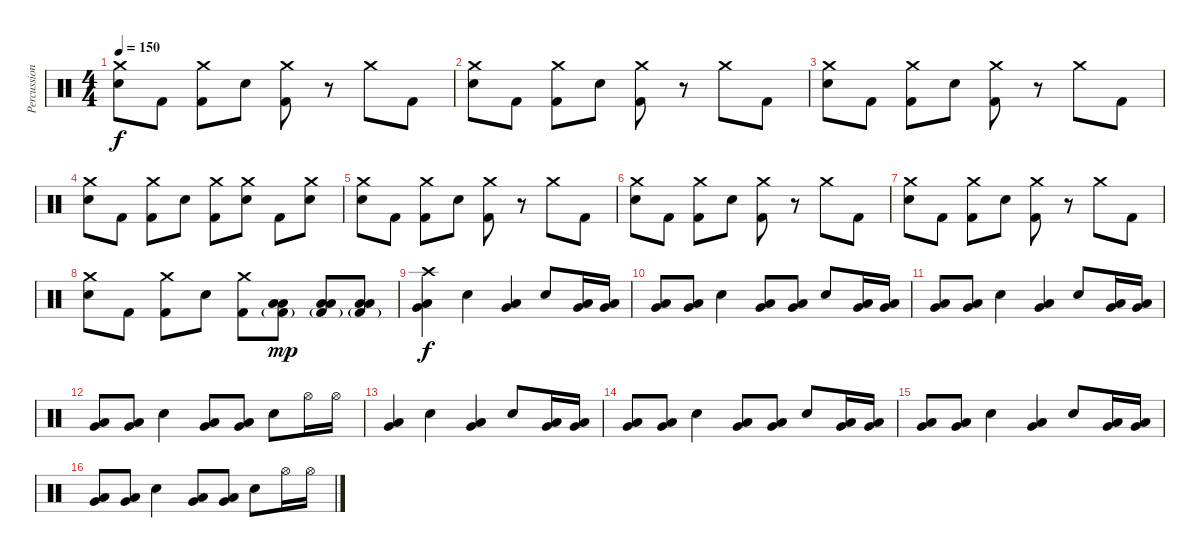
\track ("Percussion" "Percussion") {instrument percussion}
\staff {score}
\articulation defaults
\ts (4 4)
\tempo 150
\clef neutral
\ks c
("Electric Snare (hit)" "Crash medium (hit)").8{dy f} "Kick (hit) 2".8 ("Kick (hit) 2" "Crash medium (hit)").8 "Electric Snare (hit)".8 ("Kick (hit) 2" "Crash medium (hit)").8 r.8 "Crash medium (hit)".8 "Kick (hit) 2".8 |
("Electric Snare (hit)" "Crash medium (hit)").8 "Kick (hit) 2".8 ("Kick (hit) 2" "Crash medium (hit)").8 "Electric Snare (hit)".8 ("Kick (hit) 2" "Crash medium (hit)").8 r.8 "Crash medium (hit)".8 "Kick (hit) 2".8 |
("Electric Snare (hit)" "Crash medium (hit)").8 "Kick (hit) 2".8 ("Kick (hit) 2" "Crash medium (hit)").8 "Electric Snare (hit)".8 ("Kick (hit) 2" "Crash medium (hit)").8 r.8 "Crash medium (hit)".8 "Kick (hit) 2".8 |
("Electric Snare (hit)" "Crash medium (hit)").8 "Kick (hit) 2".8 ("Kick (hit) 2" "Crash medium (hit)").8 "Electric Snare (hit)".8 ("Kick (hit) 2" "Crash medium (hit)").8 ("Electric Snare (hit)" "Crash medium (hit)").8 "Kick (hit) 2".8 ("Electric Snare (hit)" "Crash medium (hit)").8 |
("Electric Snare (hit)" "Crash medium (hit)").8 "Kick (hit) 2".8 ("Kick (hit) 2" "Crash medium (hit)").8 "Electric Snare (hit)".8 ("Kick (hit) 2" "Crash medium (hit)").8 r.8 "Crash medium (hit)".8 "Kick (hit) 2".8 |
("Electric Snare (hit)" "Crash medium (hit)").8 "Kick (hit) 2".8 ("Kick (hit) 2" "Crash medium (hit)").8 "Electric Snare (hit)".8 ("Kick (hit) 2" "Crash medium (hit)").8 r.8 "Crash medium (hit)".8 "Kick (hit) 2".8 |
("Electric Snare (hit)" "Crash medium (hit)").8 "Kick (hit) 2".8 ("Kick (hit) 2" "Crash medium (hit)").8 "Electric Snare (hit)".8 ("Kick (hit) 2" "Crash medium (hit)").8 r.8 "Crash medium (hit)".8 "Kick (hit) 2".8 |
("Electric Snare (hit)" "Crash medium (hit)").8 "Kick (hit) 2".8 ("Kick (hit) 2" "Crash medium (hit)").8 "Electric Snare (hit)".8 ("Kick (hit) 2" "Crash medium (hit)").8 ("Low Tom (hit)" "Low Floor Tom (hit)" "Kick (hit) 2"{g}).8{dy mp} ("Low Tom (hit)" "Low Floor Tom (hit)" "Kick (hit) 2"{g}).8 ("Low Tom (hit)" "Low Floor Tom (hit)" "Kick (hit) 2"{g}).8 |
("Low Tom (hit)" "Very Low Tom (hit)" "Crash high (hit)").4{dy f} "Electric Snare (hit)".4 ("Low Tom (hit)" "Very Low Tom (hit)").4 "Electric Snare (hit)".8 ("Low Tom (hit)" "Very Low Tom (hit)").16 ("Very Low Tom (hit)" "Low Floor Tom (hit)").16 |
("Very Low Tom (hit)" "Low Floor Tom (hit)").8 ("Very Low Tom (hit)" "Low Floor Tom (hit)").8 "Electric Snare (hit)".4 ("Low Tom (hit)" "Very Low Tom (hit)").8 ("Low Tom (hit)" "Very Low Tom (hit)").8 "Electric Snare (hit)".8 ("Low Tom (hit)" "Very Low Tom (hit)").16 ("Very Low Tom (hit)" "Low Floor Tom (hit)").16 |
("Very Low Tom (hit)" "Low Floor Tom (hit)").8 ("Very Low Tom (hit)" "Low Floor Tom (hit)").8 "Electric Snare (hit)".4 ("Low Tom (hit)" "Very Low Tom (hit)").4 "Electric Snare (hit)".8 ("Low Tom (hit)" "Very Low Tom (hit)").16 ("Very Low Tom (hit)" "Low Floor Tom (hit)").16 |
("Very Low Tom (hit)" "Low Floor Tom (hit)").8 ("Very Low Tom (hit)" "Low Floor Tom (hit)").8 "Electric Snare (hit)".4 ("Low Tom (hit)" "Very Low Tom (hit)").8 ("Low Tom (hit)" "Very Low Tom (hit)").8 "Electric Snare (hit)".8 "Hi-Hat (open)".16 "Hi-Hat (open)".16 |
("Low Tom (hit)" "Very Low Tom (hit)").4 "Electric Snare (hit)".4 ("Low Tom (hit)" "Very Low Tom (hit)").4 "Electric Snare (hit)".8 ("Low Tom (hit)" "Very Low Tom (hit)").16 ("Very Low Tom (hit)" "Low Floor Tom (hit)").16 |
("Very Low Tom (hit)" "Low Floor Tom (hit)").8 ("Very Low Tom (hit)" "Low Floor Tom (hit)").8 "Electric Snare (hit)".4 ("Low Tom (hit)" "Very Low Tom (hit)").8 ("Low Tom (hit)" "Very Low Tom (hit)").8 "Electric Snare (hit)".8 ("Low Tom (hit)" "Very Low Tom (hit)").16 ("Very Low Tom (hit)" "Low Floor Tom (hit)").16 |
("Very Low Tom (hit)" "Low Floor Tom (hit)").8 ("Very Low Tom (hit)" "Low Floor Tom (hit)").8 "Electric Snare (hit)".4 ("Low Tom (hit)" "Very Low Tom (hit)").4 "Electric Snare (hit)".8 ("Low Tom (hit)" "Very Low Tom (hit)").16 ("Very Low Tom (hit)" "Low Floor Tom (hit)").16 |
("Very Low Tom (hit)" "Low Floor Tom (hit)").8 ("Very Low Tom (hit)" "Low Floor Tom (hit)").8 "Electric Snare (hit)".4 ("Low Tom (hit)" "Very Low Tom (hit)").8 ("Low Tom (hit)" "Very Low Tom (hit)").8 "Electric Snare (hit)".8 "Hi-Hat (open)".16 "Hi-Hat (open)".16
